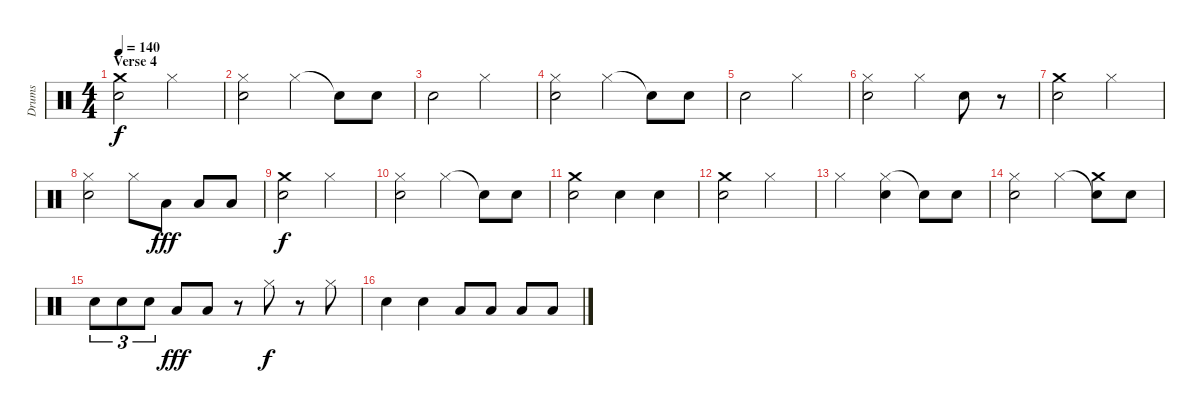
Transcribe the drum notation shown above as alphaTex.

\track ("Drums" "Drums") {instrument percussion}
\staff {score}
\articulation defaults
\ts (4 4)
\section ("" "Verse 4")
\tempo 140
\clef neutral
\ks c
("Snare (hit) 2" "Crash medium (hit)").2{dy f} "Hi-Hat (closed)".2 |
("Hi-Hat (closed)" "Snare (hit) 2").2 "Hi-Hat (closed)".4 "Snare (hit)"{t}.8 "Snare (hit) 2".8 |
"Snare (hit) 2".2 "Hi-Hat (closed)".2 |
("Hi-Hat (closed)" "Snare (hit) 2").2 "Hi-Hat (closed)".4 "Snare (hit)"{t}.8 "Snare (hit) 2".8 |
"Snare (hit) 2".2 "Hi-Hat (closed)".2 |
("Hi-Hat (closed)" "Snare (hit) 2").2 "Hi-Hat (closed)".4 "Snare (hit) 2".8 r.8 |
("Snare (hit) 2" "Crash medium (hit)").2 "Hi-Hat (closed)".2 |
("Hi-Hat (closed)" "Snare (hit) 2").2 "Hi-Hat (closed)".8 "Low Floor Tom (hit)".8{dy fff} "Low Floor Tom (hit)".8 "Low Floor Tom (hit)".8 |
("Snare (hit) 2" "Crash medium (hit)").2{dy f} "Hi-Hat (closed)".2 |
("Hi-Hat (closed)" "Snare (hit) 2").2 "Hi-Hat (closed)".4 "Snare (hit)"{t}.8 "Snare (hit) 2".8 |
("Snare (hit) 2" "Crash medium (hit)").2 "Snare (hit) 2".4 "Snare (hit) 2".4 |
("Snare (hit) 2" "Crash medium (hit)").2 "Hi-Hat (closed)".2 |
"Hi-Hat (closed)".2 ("Hi-Hat (closed)" "Snare (hit) 2").4 "Snare (hit)"{t}.8 "Snare (hit) 2".8 |
("Hi-Hat (closed)" "Snare (hit) 2").2 "Hi-Hat (closed)".4 ("Snare (hit)"{t} "Crash medium (hit)").8 "Snare (hit) 2".8 |
"Snare (hit) 2".8{tu (3 2)} "Snare (hit) 2".8{tu (3 2)} "Snare (hit) 2".8{tu (3 2)} "Low Floor Tom (hit)".8{dy fff} "Low Floor Tom (hit)".8 r.8 "Hi-Hat (closed)".8{dy f} r.8 "Hi-Hat (closed)".8 |
"Snare (hit) 2".4 "Snare (hit) 2".4 "Low Floor Tom (hit)".8 "Low Floor Tom (hit)".8 "Low Floor Tom (hit)".8 "Low Floor Tom (hit)".8
